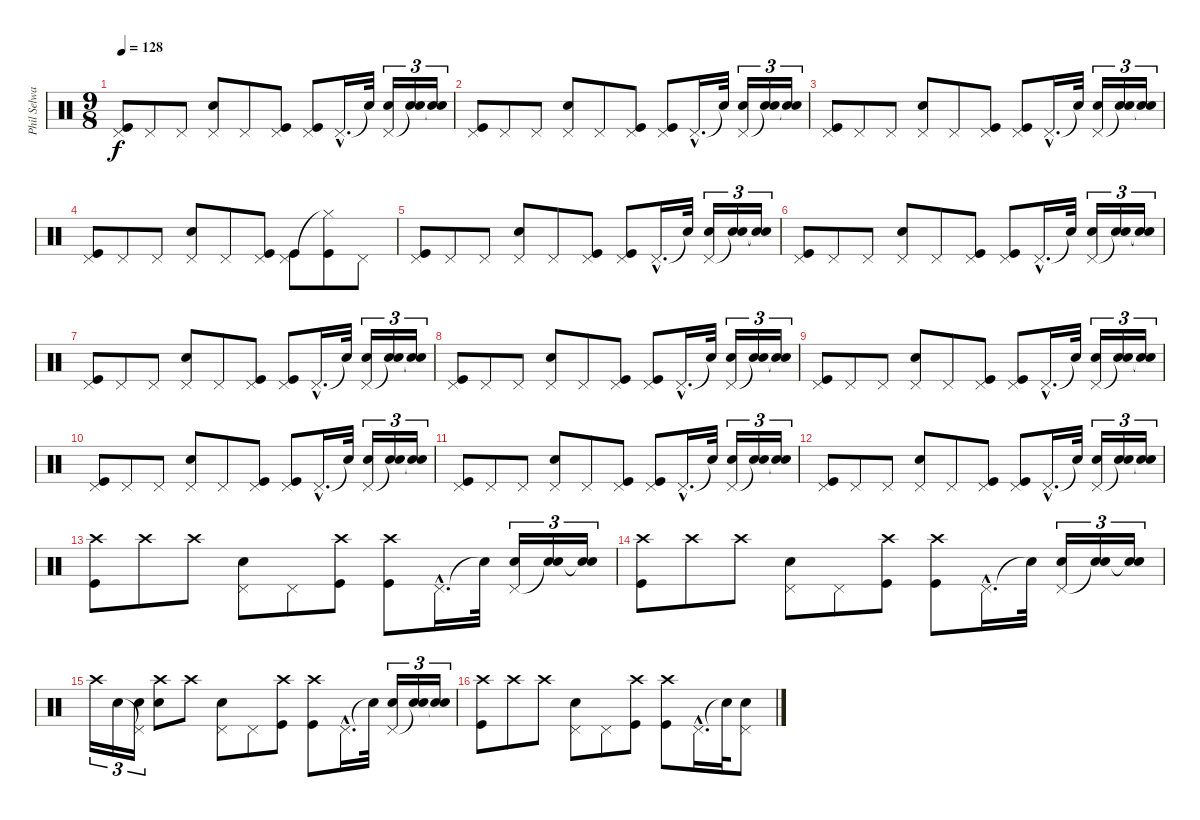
\track ("Phil Selway - Drums" "Phil Selwa") {instrument percussion}
\staff {score}
\articulation defaults
\ts (9 8)
\tempo 128
\clef neutral
\ks c
("Pedal Hi-Hat (hit)" "Kick (hit)").8{dy f} "Pedal Hi-Hat (hit)".8 "Pedal Hi-Hat (hit)".8 ("Pedal Hi-Hat (hit)" "Snare (hit) 2").8 "Pedal Hi-Hat (hit)".8 ("Pedal Hi-Hat (hit)" "Kick (hit)").8 ("Pedal Hi-Hat (hit)" "Kick (hit)").8 "Pedal Hi-Hat (hit)"{hac}.16{d} "Snare (hit)"{t}.32 ("Pedal Hi-Hat (hit)" "Snare (hit) 2").16{tu (3 2)} ("Snare (hit)"{t} "Snare (hit) 2").16{tu (3 2)} ("Snare (hit)"{t} "Snare (hit) 2").16{tu (3 2)} |
("Pedal Hi-Hat (hit)" "Kick (hit)").8 "Pedal Hi-Hat (hit)".8 "Pedal Hi-Hat (hit)".8 ("Pedal Hi-Hat (hit)" "Snare (hit) 2").8 "Pedal Hi-Hat (hit)".8 ("Pedal Hi-Hat (hit)" "Kick (hit)").8 ("Pedal Hi-Hat (hit)" "Kick (hit)").8 "Pedal Hi-Hat (hit)"{hac}.16{d} "Snare (hit)"{t}.32 ("Pedal Hi-Hat (hit)" "Snare (hit) 2").16{tu (3 2)} ("Snare (hit)"{t} "Snare (hit) 2").16{tu (3 2)} ("Snare (hit)"{t} "Snare (hit) 2").16{tu (3 2)} |
("Pedal Hi-Hat (hit)" "Kick (hit)").8 "Pedal Hi-Hat (hit)".8 "Pedal Hi-Hat (hit)".8 ("Pedal Hi-Hat (hit)" "Snare (hit) 2").8 "Pedal Hi-Hat (hit)".8 ("Pedal Hi-Hat (hit)" "Kick (hit)").8 ("Pedal Hi-Hat (hit)" "Kick (hit)").8 "Pedal Hi-Hat (hit)"{hac}.16{d} "Snare (hit)"{t}.32 ("Pedal Hi-Hat (hit)" "Snare (hit) 2").16{tu (3 2)} ("Snare (hit)"{t} "Snare (hit) 2").16{tu (3 2)} ("Snare (hit)"{t} "Snare (hit) 2").16{tu (3 2)} |
("Pedal Hi-Hat (hit)" "Kick (hit)").8 "Pedal Hi-Hat (hit)".8 "Pedal Hi-Hat (hit)".8 ("Pedal Hi-Hat (hit)" "Snare (hit) 2").8 "Pedal Hi-Hat (hit)".8 ("Pedal Hi-Hat (hit)" "Kick (hit)").8 ("Pedal Hi-Hat (hit)" "Kick (hit)").8 ("Hi-Hat (closed)"{t} "Kick (hit)").8 "Pedal Hi-Hat (hit)".8 |
("Pedal Hi-Hat (hit)" "Kick (hit)").8 "Pedal Hi-Hat (hit)".8 "Pedal Hi-Hat (hit)".8 ("Pedal Hi-Hat (hit)" "Snare (hit) 2").8 "Pedal Hi-Hat (hit)".8 ("Pedal Hi-Hat (hit)" "Kick (hit)").8 ("Pedal Hi-Hat (hit)" "Kick (hit)").8 "Pedal Hi-Hat (hit)"{hac}.16{d} "Snare (hit)"{t}.32 ("Pedal Hi-Hat (hit)" "Snare (hit) 2").16{tu (3 2)} ("Snare (hit)"{t} "Snare (hit) 2").16{tu (3 2)} ("Snare (hit)"{t} "Snare (hit) 2").16{tu (3 2)} |
("Pedal Hi-Hat (hit)" "Kick (hit)").8 "Pedal Hi-Hat (hit)".8 "Pedal Hi-Hat (hit)".8 ("Pedal Hi-Hat (hit)" "Snare (hit) 2").8 "Pedal Hi-Hat (hit)".8 ("Pedal Hi-Hat (hit)" "Kick (hit)").8 ("Pedal Hi-Hat (hit)" "Kick (hit)").8 "Pedal Hi-Hat (hit)"{hac}.16{d} "Snare (hit)"{t}.32 ("Pedal Hi-Hat (hit)" "Snare (hit) 2").16{tu (3 2)} ("Snare (hit)"{t} "Snare (hit) 2").16{tu (3 2)} ("Snare (hit)"{t} "Snare (hit) 2").16{tu (3 2)} |
("Pedal Hi-Hat (hit)" "Kick (hit)").8 "Pedal Hi-Hat (hit)".8 "Pedal Hi-Hat (hit)".8 ("Pedal Hi-Hat (hit)" "Snare (hit) 2").8 "Pedal Hi-Hat (hit)".8 ("Pedal Hi-Hat (hit)" "Kick (hit)").8 ("Pedal Hi-Hat (hit)" "Kick (hit)").8 "Pedal Hi-Hat (hit)"{hac}.16{d} "Snare (hit)"{t}.32 ("Pedal Hi-Hat (hit)" "Snare (hit) 2").16{tu (3 2)} ("Snare (hit)"{t} "Snare (hit) 2").16{tu (3 2)} ("Snare (hit)"{t} "Snare (hit) 2").16{tu (3 2)} |
("Pedal Hi-Hat (hit)" "Kick (hit)").8 "Pedal Hi-Hat (hit)".8 "Pedal Hi-Hat (hit)".8 ("Pedal Hi-Hat (hit)" "Snare (hit) 2").8 "Pedal Hi-Hat (hit)".8 ("Pedal Hi-Hat (hit)" "Kick (hit)").8 ("Pedal Hi-Hat (hit)" "Kick (hit)").8 "Pedal Hi-Hat (hit)"{hac}.16{d} "Snare (hit)"{t}.32 ("Pedal Hi-Hat (hit)" "Snare (hit) 2").16{tu (3 2)} ("Snare (hit)"{t} "Snare (hit) 2").16{tu (3 2)} ("Snare (hit)"{t} "Snare (hit) 2").16{tu (3 2)} |
("Pedal Hi-Hat (hit)" "Kick (hit)").8 "Pedal Hi-Hat (hit)".8 "Pedal Hi-Hat (hit)".8 ("Pedal Hi-Hat (hit)" "Snare (hit) 2").8 "Pedal Hi-Hat (hit)".8 ("Pedal Hi-Hat (hit)" "Kick (hit)").8 ("Pedal Hi-Hat (hit)" "Kick (hit)").8 "Pedal Hi-Hat (hit)"{hac}.16{d} "Snare (hit)"{t}.32 ("Pedal Hi-Hat (hit)" "Snare (hit) 2").16{tu (3 2)} ("Snare (hit)"{t} "Snare (hit) 2").16{tu (3 2)} ("Snare (hit)"{t} "Snare (hit) 2").16{tu (3 2)} |
("Pedal Hi-Hat (hit)" "Kick (hit)").8 "Pedal Hi-Hat (hit)".8 "Pedal Hi-Hat (hit)".8 ("Pedal Hi-Hat (hit)" "Snare (hit) 2").8 "Pedal Hi-Hat (hit)".8 ("Pedal Hi-Hat (hit)" "Kick (hit)").8 ("Pedal Hi-Hat (hit)" "Kick (hit)").8 "Pedal Hi-Hat (hit)"{hac}.16{d} "Snare (hit)"{t}.32 ("Pedal Hi-Hat (hit)" "Snare (hit) 2").16{tu (3 2)} ("Snare (hit)"{t} "Snare (hit) 2").16{tu (3 2)} ("Snare (hit)"{t} "Snare (hit) 2").16{tu (3 2)} |
("Pedal Hi-Hat (hit)" "Kick (hit)").8 "Pedal Hi-Hat (hit)".8 "Pedal Hi-Hat (hit)".8 ("Pedal Hi-Hat (hit)" "Snare (hit) 2").8 "Pedal Hi-Hat (hit)".8 ("Pedal Hi-Hat (hit)" "Kick (hit)").8 ("Pedal Hi-Hat (hit)" "Kick (hit)").8 "Pedal Hi-Hat (hit)"{hac}.16{d} "Snare (hit)"{t}.32 ("Pedal Hi-Hat (hit)" "Snare (hit) 2").16{tu (3 2)} ("Snare (hit)"{t} "Snare (hit) 2").16{tu (3 2)} ("Snare (hit)"{t} "Snare (hit) 2").16{tu (3 2)} |
("Pedal Hi-Hat (hit)" "Kick (hit)").8 "Pedal Hi-Hat (hit)".8 "Pedal Hi-Hat (hit)".8 ("Pedal Hi-Hat (hit)" "Snare (hit) 2").8 "Pedal Hi-Hat (hit)".8 ("Pedal Hi-Hat (hit)" "Kick (hit)").8 ("Pedal Hi-Hat (hit)" "Kick (hit)").8 "Pedal Hi-Hat (hit)"{hac}.16{d} "Snare (hit)"{t}.32 ("Pedal Hi-Hat (hit)" "Snare (hit) 2").16{tu (3 2)} ("Snare (hit)"{t} "Snare (hit) 2").16{tu (3 2)} ("Snare (hit)"{t} "Snare (hit) 2").16{tu (3 2)} |
("Crash high (hit)" "Kick (hit)").8 "Crash high (hit)".8 "Crash high (hit)".8 ("Pedal Hi-Hat (hit)" "Snare (hit) 2").8 "Pedal Hi-Hat (hit)".8 ("Crash high (hit)" "Kick (hit)").8 ("Crash high (hit)" "Kick (hit)").8 "Pedal Hi-Hat (hit)"{hac}.16{d} "Snare (hit)"{t}.32 ("Pedal Hi-Hat (hit)" "Snare (hit) 2").16{tu (3 2)} ("Snare (hit)"{t} "Snare (hit) 2").16{tu (3 2)} ("Snare (hit)"{t} "Snare (hit) 2").16{tu (3 2)} |
("Crash high (hit)" "Kick (hit)").8 "Crash high (hit)".8 "Crash high (hit)".8 ("Pedal Hi-Hat (hit)" "Snare (hit) 2").8 "Pedal Hi-Hat (hit)".8 ("Crash high (hit)" "Kick (hit)").8 ("Crash high (hit)" "Kick (hit)").8 "Pedal Hi-Hat (hit)"{hac}.16{d} "Snare (hit)"{t}.32 ("Pedal Hi-Hat (hit)" "Snare (hit) 2").16{tu (3 2)} ("Snare (hit)"{t} "Snare (hit) 2").16{tu (3 2)} ("Snare (hit)"{t} "Snare (hit) 2").16{tu (3 2)} |
"Crash high (hit)".16{tu (3 2)} "Snare (hit) 2".16{tu (3 2)} ("Pedal Hi-Hat (hit)"{t} "Snare (hit) 2").16{tu (3 2)} ("Crash high (hit)" "Snare (hit) 2").8 "Crash high (hit)".8 ("Pedal Hi-Hat (hit)" "Snare (hit) 2").8 "Pedal Hi-Hat (hit)".8 ("Crash high (hit)" "Kick (hit)").8 ("Crash high (hit)" "Kick (hit)").8 "Pedal Hi-Hat (hit)"{hac}.16{d} "Snare (hit)"{t}.32 ("Pedal Hi-Hat (hit)" "Snare (hit) 2").16{tu (3 2)} ("Snare (hit)"{t} "Snare (hit) 2").16{tu (3 2)} ("Snare (hit)"{t} "Snare (hit) 2").16{tu (3 2)} |
("Crash high (hit)" "Kick (hit)").8 "Crash high (hit)".8 "Crash high (hit)".8 ("Pedal Hi-Hat (hit)" "Snare (hit) 2").8 "Pedal Hi-Hat (hit)".8 ("Crash high (hit)" "Kick (hit)").8 ("Crash high (hit)" "Kick (hit)").8 "Pedal Hi-Hat (hit)"{hac}.16{d} "Snare (hit)"{t}.32 ("Pedal Hi-Hat (hit)" "Snare (hit) 2").8
